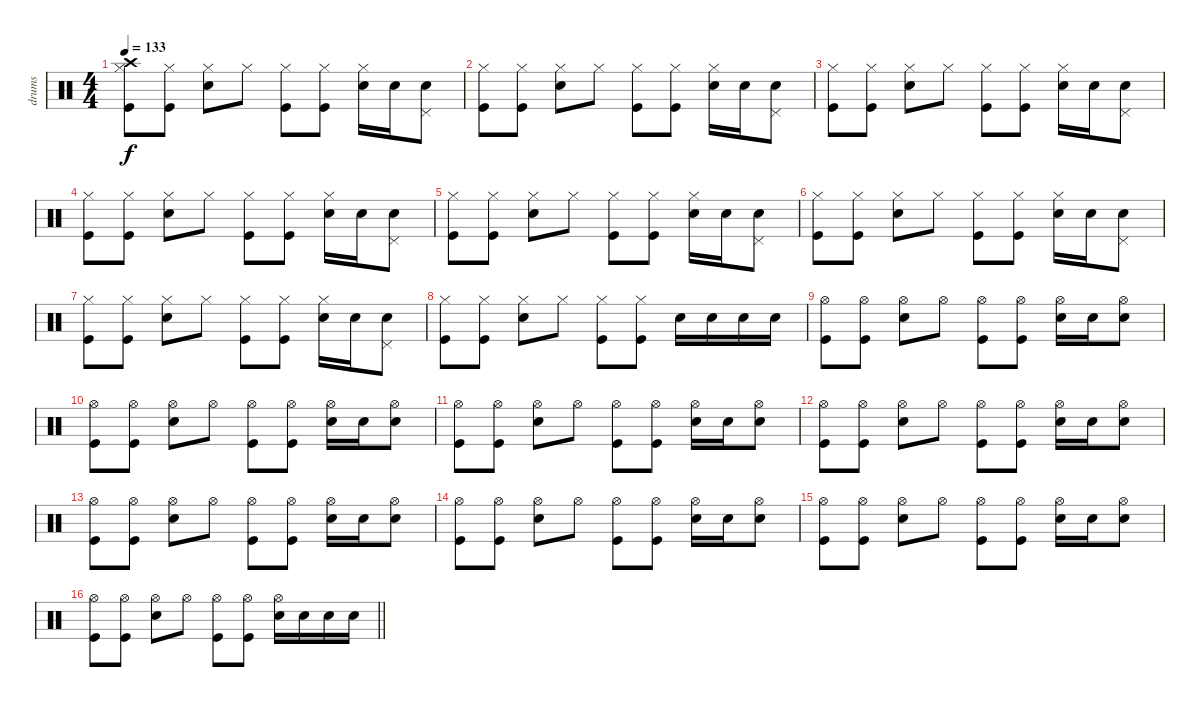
\track ("drums" "drums") {instrument percussion}
\staff {score}
\articulation defaults
\ts (4 4)
\tempo 133
\clef neutral
\ks c
("Kick (hit)" "Hi-Hat (closed)" "Crash high (hit)").8{dy f} ("Kick (hit)" "Hi-Hat (closed)").8 ("Electric Snare (hit)" "Hi-Hat (closed)").8 "Hi-Hat (closed)".8 ("Kick (hit)" "Hi-Hat (closed)").8 ("Kick (hit)" "Hi-Hat (closed)").8 ("Electric Snare (hit)" "Hi-Hat (closed)").16 "Electric Snare (hit)".16 ("Electric Snare (hit)" "Pedal Hi-Hat (hit)").8 |
("Kick (hit)" "Hi-Hat (closed)").8 ("Kick (hit)" "Hi-Hat (closed)").8 ("Electric Snare (hit)" "Hi-Hat (closed)").8 "Hi-Hat (closed)".8 ("Kick (hit)" "Hi-Hat (closed)").8 ("Kick (hit)" "Hi-Hat (closed)").8 ("Electric Snare (hit)" "Hi-Hat (closed)").16 "Electric Snare (hit)".16 ("Electric Snare (hit)" "Pedal Hi-Hat (hit)").8 |
("Kick (hit)" "Hi-Hat (closed)").8 ("Kick (hit)" "Hi-Hat (closed)").8 ("Electric Snare (hit)" "Hi-Hat (closed)").8 "Hi-Hat (closed)".8 ("Kick (hit)" "Hi-Hat (closed)").8 ("Kick (hit)" "Hi-Hat (closed)").8 ("Electric Snare (hit)" "Hi-Hat (closed)").16 "Electric Snare (hit)".16 ("Electric Snare (hit)" "Pedal Hi-Hat (hit)").8 |
("Kick (hit)" "Hi-Hat (closed)").8 ("Kick (hit)" "Hi-Hat (closed)").8 ("Electric Snare (hit)" "Hi-Hat (closed)").8 "Hi-Hat (closed)".8 ("Kick (hit)" "Hi-Hat (closed)").8 ("Kick (hit)" "Hi-Hat (closed)").8 ("Electric Snare (hit)" "Hi-Hat (closed)").16 "Electric Snare (hit)".16 ("Electric Snare (hit)" "Pedal Hi-Hat (hit)").8 |
("Kick (hit)" "Hi-Hat (closed)").8 ("Kick (hit)" "Hi-Hat (closed)").8 ("Electric Snare (hit)" "Hi-Hat (closed)").8 "Hi-Hat (closed)".8 ("Kick (hit)" "Hi-Hat (closed)").8 ("Kick (hit)" "Hi-Hat (closed)").8 ("Electric Snare (hit)" "Hi-Hat (closed)").16 "Electric Snare (hit)".16 ("Electric Snare (hit)" "Pedal Hi-Hat (hit)").8 |
("Kick (hit)" "Hi-Hat (closed)").8 ("Kick (hit)" "Hi-Hat (closed)").8 ("Electric Snare (hit)" "Hi-Hat (closed)").8 "Hi-Hat (closed)".8 ("Kick (hit)" "Hi-Hat (closed)").8 ("Kick (hit)" "Hi-Hat (closed)").8 ("Electric Snare (hit)" "Hi-Hat (closed)").16 "Electric Snare (hit)".16 ("Electric Snare (hit)" "Pedal Hi-Hat (hit)").8 |
("Kick (hit)" "Hi-Hat (closed)").8 ("Kick (hit)" "Hi-Hat (closed)").8 ("Electric Snare (hit)" "Hi-Hat (closed)").8 "Hi-Hat (closed)".8 ("Kick (hit)" "Hi-Hat (closed)").8 ("Kick (hit)" "Hi-Hat (closed)").8 ("Electric Snare (hit)" "Hi-Hat (closed)").16 "Electric Snare (hit)".16 ("Electric Snare (hit)" "Pedal Hi-Hat (hit)").8 |
("Kick (hit)" "Hi-Hat (closed)").8 ("Kick (hit)" "Hi-Hat (closed)").8 ("Electric Snare (hit)" "Hi-Hat (closed)").8 "Hi-Hat (closed)".8 ("Kick (hit)" "Hi-Hat (closed)").8 ("Kick (hit)" "Hi-Hat (closed)").8 "Electric Snare (hit)".16 "Electric Snare (hit)".16 "Electric Snare (hit)".16 "Electric Snare (hit)".16 |
("Kick (hit)" "Hi-Hat (open)").8 ("Kick (hit)" "Hi-Hat (open)").8 ("Electric Snare (hit)" "Hi-Hat (open)").8 "Hi-Hat (open)".8 ("Kick (hit)" "Hi-Hat (open)").8 ("Kick (hit)" "Hi-Hat (open)").8 ("Electric Snare (hit)" "Hi-Hat (open)").16 "Electric Snare (hit)".16 ("Electric Snare (hit)" "Hi-Hat (open)").8 |
("Kick (hit)" "Hi-Hat (open)").8 ("Kick (hit)" "Hi-Hat (open)").8 ("Electric Snare (hit)" "Hi-Hat (open)").8 "Hi-Hat (open)".8 ("Kick (hit)" "Hi-Hat (open)").8 ("Kick (hit)" "Hi-Hat (open)").8 ("Electric Snare (hit)" "Hi-Hat (open)").16 "Electric Snare (hit)".16 ("Electric Snare (hit)" "Hi-Hat (open)").8 |
("Kick (hit)" "Hi-Hat (open)").8 ("Kick (hit)" "Hi-Hat (open)").8 ("Electric Snare (hit)" "Hi-Hat (open)").8 "Hi-Hat (open)".8 ("Kick (hit)" "Hi-Hat (open)").8 ("Kick (hit)" "Hi-Hat (open)").8 ("Electric Snare (hit)" "Hi-Hat (open)").16 "Electric Snare (hit)".16 ("Electric Snare (hit)" "Hi-Hat (open)").8 |
("Kick (hit)" "Hi-Hat (open)").8 ("Kick (hit)" "Hi-Hat (open)").8 ("Electric Snare (hit)" "Hi-Hat (open)").8 "Hi-Hat (open)".8 ("Kick (hit)" "Hi-Hat (open)").8 ("Kick (hit)" "Hi-Hat (open)").8 ("Electric Snare (hit)" "Hi-Hat (open)").16 "Electric Snare (hit)".16 ("Electric Snare (hit)" "Hi-Hat (open)").8 |
("Kick (hit)" "Hi-Hat (open)").8 ("Kick (hit)" "Hi-Hat (open)").8 ("Electric Snare (hit)" "Hi-Hat (open)").8 "Hi-Hat (open)".8 ("Kick (hit)" "Hi-Hat (open)").8 ("Kick (hit)" "Hi-Hat (open)").8 ("Electric Snare (hit)" "Hi-Hat (open)").16 "Electric Snare (hit)".16 ("Electric Snare (hit)" "Hi-Hat (open)").8 |
("Kick (hit)" "Hi-Hat (open)").8 ("Kick (hit)" "Hi-Hat (open)").8 ("Electric Snare (hit)" "Hi-Hat (open)").8 "Hi-Hat (open)".8 ("Kick (hit)" "Hi-Hat (open)").8 ("Kick (hit)" "Hi-Hat (open)").8 ("Electric Snare (hit)" "Hi-Hat (open)").16 "Electric Snare (hit)".16 ("Electric Snare (hit)" "Hi-Hat (open)").8 |
("Kick (hit)" "Hi-Hat (open)").8 ("Kick (hit)" "Hi-Hat (open)").8 ("Electric Snare (hit)" "Hi-Hat (open)").8 "Hi-Hat (open)".8 ("Kick (hit)" "Hi-Hat (open)").8 ("Kick (hit)" "Hi-Hat (open)").8 ("Electric Snare (hit)" "Hi-Hat (open)").16 "Electric Snare (hit)".16 ("Electric Snare (hit)" "Hi-Hat (open)").8 |
\barLineRight lightlight
("Kick (hit)" "Hi-Hat (open)").8 ("Kick (hit)" "Hi-Hat (open)").8 ("Electric Snare (hit)" "Hi-Hat (open)").8 "Hi-Hat (open)".8 ("Kick (hit)" "Hi-Hat (open)").8 ("Kick (hit)" "Hi-Hat (open)").8 ("Electric Snare (hit)" "Hi-Hat (open)").16 "Electric Snare (hit)".16 "Electric Snare (hit)".16 "Electric Snare (hit)".16
